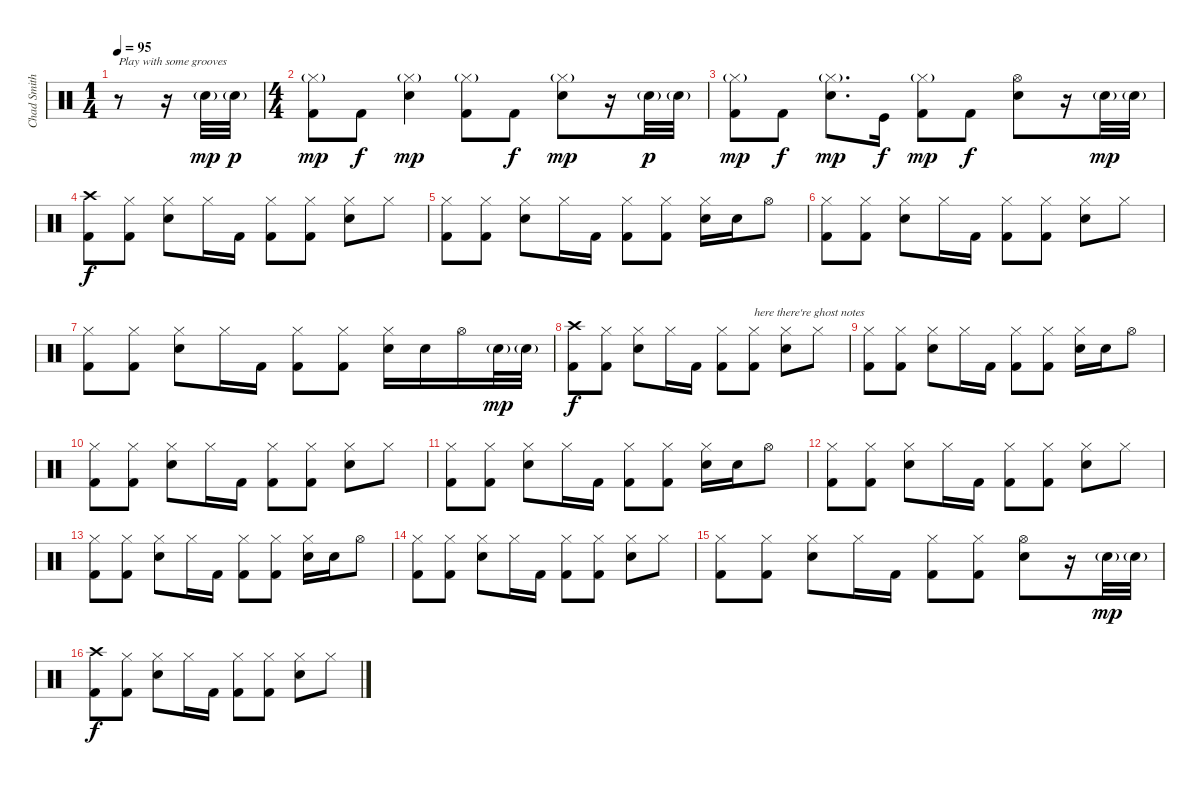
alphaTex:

\track ("Chad Smith" "Chad Smith") {instrument percussion}
\staff {score}
\articulation defaults
\ts (1 4)
\tempo 95
\clef neutral
\ks c
r.8{txt "Play with some grooves" dy mp} r.16 "Snare (hit) 2"{g}.32 "Snare (hit) 2"{g}.32{dy p} |
\ts (4 4)
("Hi-Hat (closed)"{g} "Kick (hit) 2").8{dy mp} "Kick (hit) 2".8{dy f} ("Hi-Hat (closed)"{g} "Snare (hit) 2").4{dy mp} ("Hi-Hat (closed)"{g} "Kick (hit) 2").8 "Kick (hit) 2".8{dy f} ("Hi-Hat (closed)"{g} "Snare (hit) 2").8{dy mp} r.16 "Snare (hit) 2"{g}.32{dy p} "Snare (hit) 2"{g}.32 |
("Hi-Hat (closed)"{g} "Kick (hit) 2").8{dy mp} "Kick (hit) 2".8{dy f} ("Hi-Hat (closed)"{g} "Snare (hit) 2").8{d dy mp} "Kick (hit)".16{dy f} ("Hi-Hat (closed)"{g} "Kick (hit) 2").8{dy mp} "Kick (hit) 2".8{dy f} ("Hi-Hat (open)" "Snare (hit) 2").8 r.16 "Snare (hit) 2"{g}.32{dy mp} "Snare (hit) 2"{g}.32 |
("Crash high (hit)" "Kick (hit) 2").8{dy f} ("Hi-Hat (closed)" "Kick (hit) 2").8 ("Hi-Hat (closed)" "Snare (hit) 2").8 "Hi-Hat (closed)".16 "Kick (hit) 2".16 ("Hi-Hat (closed)" "Kick (hit) 2").8 ("Hi-Hat (closed)" "Kick (hit) 2").8 ("Hi-Hat (closed)" "Snare (hit) 2").8 "Hi-Hat (closed)".8 |
("Hi-Hat (closed)" "Kick (hit) 2").8 ("Hi-Hat (closed)" "Kick (hit) 2").8 ("Hi-Hat (closed)" "Snare (hit) 2").8 "Hi-Hat (closed)".16 "Kick (hit) 2".16 ("Hi-Hat (closed)" "Kick (hit) 2").8 ("Hi-Hat (closed)" "Kick (hit) 2").8 ("Hi-Hat (closed)" "Snare (hit) 2").16 "Snare (hit) 2".16 "Hi-Hat (open)".8 |
("Hi-Hat (closed)" "Kick (hit) 2").8 ("Hi-Hat (closed)" "Kick (hit) 2").8 ("Hi-Hat (closed)" "Snare (hit) 2").8 "Hi-Hat (closed)".16 "Kick (hit) 2".16 ("Hi-Hat (closed)" "Kick (hit) 2").8 ("Hi-Hat (closed)" "Kick (hit) 2").8 ("Hi-Hat (closed)" "Snare (hit) 2").8 "Hi-Hat (closed)".8 |
("Hi-Hat (closed)" "Kick (hit) 2").8 ("Hi-Hat (closed)" "Kick (hit) 2").8 ("Hi-Hat (closed)" "Snare (hit) 2").8 "Hi-Hat (closed)".16 "Kick (hit) 2".16 ("Hi-Hat (closed)" "Kick (hit) 2").8 ("Hi-Hat (closed)" "Kick (hit) 2").8 ("Hi-Hat (closed)" "Snare (hit) 2").16 "Snare (hit) 2".16 "Hi-Hat (open)".16 "Snare (hit) 2"{g}.32{dy mp} "Snare (hit) 2"{g}.32 |
("Crash high (hit)" "Kick (hit) 2").8{dy f} ("Hi-Hat (closed)" "Kick (hit) 2").8 ("Hi-Hat (closed)" "Snare (hit) 2").8 "Hi-Hat (closed)".16 "Kick (hit) 2".16 ("Hi-Hat (closed)" "Kick (hit) 2").8 ("Hi-Hat (closed)" "Kick (hit) 2").8{txt "here there're ghost notes "} ("Hi-Hat (closed)" "Snare (hit) 2").8 "Hi-Hat (closed)".8 |
("Hi-Hat (closed)" "Kick (hit) 2").8 ("Hi-Hat (closed)" "Kick (hit) 2").8 ("Hi-Hat (closed)" "Snare (hit) 2").8 "Hi-Hat (closed)".16 "Kick (hit) 2".16 ("Hi-Hat (closed)" "Kick (hit) 2").8 ("Hi-Hat (closed)" "Kick (hit) 2").8 ("Hi-Hat (closed)" "Snare (hit) 2").16 "Snare (hit) 2".16 "Hi-Hat (open)".8 |
("Hi-Hat (closed)" "Kick (hit) 2").8 ("Hi-Hat (closed)" "Kick (hit) 2").8 ("Hi-Hat (closed)" "Snare (hit) 2").8 "Hi-Hat (closed)".16 "Kick (hit) 2".16 ("Hi-Hat (closed)" "Kick (hit) 2").8 ("Hi-Hat (closed)" "Kick (hit) 2").8 ("Hi-Hat (closed)" "Snare (hit) 2").8 "Hi-Hat (closed)".8 |
("Hi-Hat (closed)" "Kick (hit) 2").8 ("Hi-Hat (closed)" "Kick (hit) 2").8 ("Hi-Hat (closed)" "Snare (hit) 2").8 "Hi-Hat (closed)".16 "Kick (hit) 2".16 ("Hi-Hat (closed)" "Kick (hit) 2").8 ("Hi-Hat (closed)" "Kick (hit) 2").8 ("Hi-Hat (closed)" "Snare (hit) 2").16 "Snare (hit) 2".16 "Hi-Hat (open)".8 |
("Hi-Hat (closed)" "Kick (hit) 2").8 ("Hi-Hat (closed)" "Kick (hit) 2").8 ("Hi-Hat (closed)" "Snare (hit) 2").8 "Hi-Hat (closed)".16 "Kick (hit) 2".16 ("Hi-Hat (closed)" "Kick (hit) 2").8 ("Hi-Hat (closed)" "Kick (hit) 2").8 ("Hi-Hat (closed)" "Snare (hit) 2").8 "Hi-Hat (closed)".8 |
("Hi-Hat (closed)" "Kick (hit) 2").8 ("Hi-Hat (closed)" "Kick (hit) 2").8 ("Hi-Hat (closed)" "Snare (hit) 2").8 "Hi-Hat (closed)".16 "Kick (hit) 2".16 ("Hi-Hat (closed)" "Kick (hit) 2").8 ("Hi-Hat (closed)" "Kick (hit) 2").8 ("Hi-Hat (closed)" "Snare (hit) 2").16 "Snare (hit) 2".16 "Hi-Hat (open)".8 |
("Hi-Hat (closed)" "Kick (hit) 2").8 ("Hi-Hat (closed)" "Kick (hit) 2").8 ("Hi-Hat (closed)" "Snare (hit) 2").8 "Hi-Hat (closed)".16 "Kick (hit) 2".16 ("Hi-Hat (closed)" "Kick (hit) 2").8 ("Hi-Hat (closed)" "Kick (hit) 2").8 ("Hi-Hat (closed)" "Snare (hit) 2").8 "Hi-Hat (closed)".8 |
("Hi-Hat (closed)" "Kick (hit) 2").8 ("Hi-Hat (closed)" "Kick (hit) 2").8 ("Hi-Hat (closed)" "Snare (hit) 2").8 "Hi-Hat (closed)".16 "Kick (hit) 2".16 ("Hi-Hat (closed)" "Kick (hit) 2").8 ("Hi-Hat (closed)" "Kick (hit) 2").8 ("Hi-Hat (open)" "Snare (hit) 2").8 r.16 "Snare (hit) 2"{g}.32{dy mp} "Snare (hit) 2"{g}.32 |
("Crash high (hit)" "Kick (hit) 2").8{dy f} ("Hi-Hat (closed)" "Kick (hit) 2").8 ("Hi-Hat (closed)" "Snare (hit) 2").8 "Hi-Hat (closed)".16 "Kick (hit) 2".16 ("Hi-Hat (closed)" "Kick (hit) 2").8 ("Hi-Hat (closed)" "Kick (hit) 2").8 ("Hi-Hat (closed)" "Snare (hit) 2").8 "Hi-Hat (closed)".8
